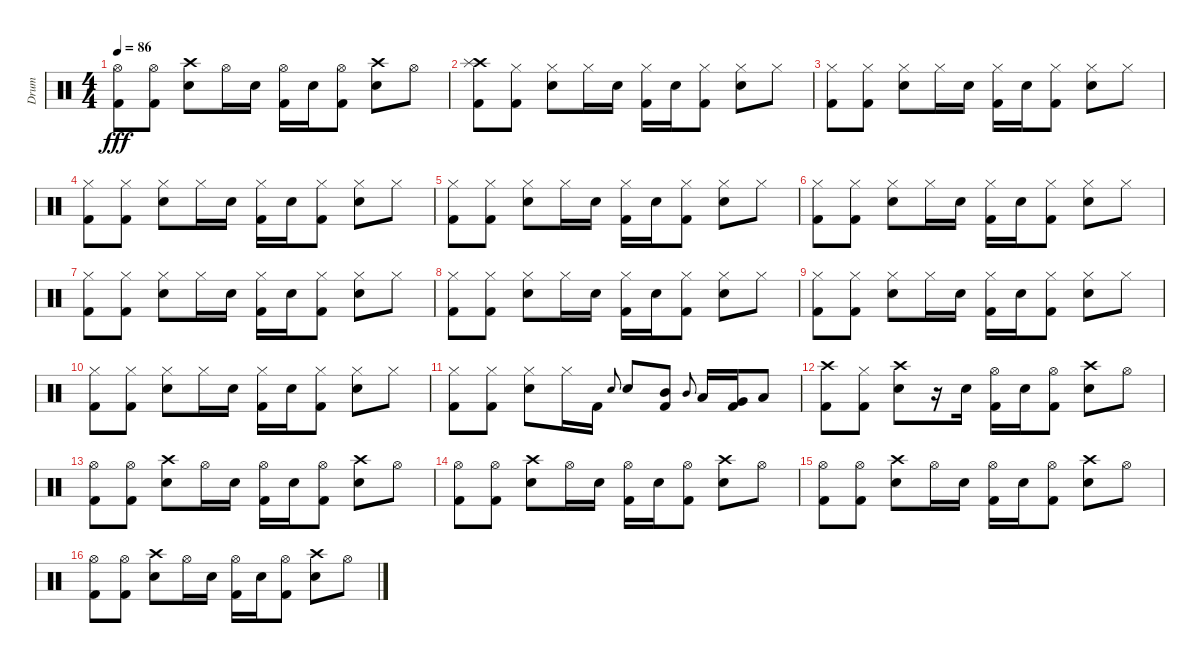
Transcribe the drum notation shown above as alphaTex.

\track ("Drum" "Drum") {instrument percussion}
\staff {score}
\articulation defaults
\ts (4 4)
\tempo 86
\clef neutral
\ks c
("Hi-Hat (open)" "Kick (hit) 2").8{dy fff} ("Hi-Hat (open)" "Kick (hit) 2").8 ("Crash high (hit)" "Electric Snare (hit)").8 "Hi-Hat (open)".16 "Electric Snare (hit)".16 ("Hi-Hat (open)" "Kick (hit) 2").16 "Electric Snare (hit)".16 ("Hi-Hat (open)" "Kick (hit) 2").8 ("Crash high (hit)" "Electric Snare (hit)").8 "Hi-Hat (open)".8 |
("Crash high (hit)" "Splash (hit)" "Kick (hit) 2").8 ("Hi-Hat (closed)" "Kick (hit) 2").8 ("Hi-Hat (closed)" "Electric Snare (hit)").8 "Hi-Hat (closed)".16 "Electric Snare (hit)".16 ("Hi-Hat (closed)" "Kick (hit) 2").16 "Electric Snare (hit)".16 ("Hi-Hat (closed)" "Kick (hit) 2").8 ("Hi-Hat (closed)" "Electric Snare (hit)").8 "Hi-Hat (closed)".8 |
("Hi-Hat (closed)" "Kick (hit) 2").8 ("Hi-Hat (closed)" "Kick (hit) 2").8 ("Hi-Hat (closed)" "Electric Snare (hit)").8 "Hi-Hat (closed)".16 "Electric Snare (hit)".16 ("Hi-Hat (closed)" "Kick (hit) 2").16 "Electric Snare (hit)".16 ("Hi-Hat (closed)" "Kick (hit) 2").8 ("Hi-Hat (closed)" "Electric Snare (hit)").8 "Hi-Hat (closed)".8 |
("Hi-Hat (closed)" "Kick (hit) 2").8 ("Hi-Hat (closed)" "Kick (hit) 2").8 ("Hi-Hat (closed)" "Electric Snare (hit)").8 "Hi-Hat (closed)".16 "Electric Snare (hit)".16 ("Hi-Hat (closed)" "Kick (hit) 2").16 "Electric Snare (hit)".16 ("Hi-Hat (closed)" "Kick (hit) 2").8 ("Hi-Hat (closed)" "Electric Snare (hit)").8 "Hi-Hat (closed)".8 |
("Hi-Hat (closed)" "Kick (hit) 2").8 ("Hi-Hat (closed)" "Kick (hit) 2").8 ("Hi-Hat (closed)" "Electric Snare (hit)").8 "Hi-Hat (closed)".16 "Electric Snare (hit)".16 ("Hi-Hat (closed)" "Kick (hit) 2").16 "Electric Snare (hit)".16 ("Hi-Hat (closed)" "Kick (hit) 2").8 ("Hi-Hat (closed)" "Electric Snare (hit)").8 "Hi-Hat (closed)".8 |
("Hi-Hat (closed)" "Kick (hit) 2").8 ("Hi-Hat (closed)" "Kick (hit) 2").8 ("Hi-Hat (closed)" "Electric Snare (hit)").8 "Hi-Hat (closed)".16 "Electric Snare (hit)".16 ("Hi-Hat (closed)" "Kick (hit) 2").16 "Electric Snare (hit)".16 ("Hi-Hat (closed)" "Kick (hit) 2").8 ("Hi-Hat (closed)" "Electric Snare (hit)").8 "Hi-Hat (closed)".8 |
("Hi-Hat (closed)" "Kick (hit) 2").8 ("Hi-Hat (closed)" "Kick (hit) 2").8 ("Hi-Hat (closed)" "Electric Snare (hit)").8 "Hi-Hat (closed)".16 "Electric Snare (hit)".16 ("Hi-Hat (closed)" "Kick (hit) 2").16 "Electric Snare (hit)".16 ("Hi-Hat (closed)" "Kick (hit) 2").8 ("Hi-Hat (closed)" "Electric Snare (hit)").8 "Hi-Hat (closed)".8 |
("Hi-Hat (closed)" "Kick (hit) 2").8 ("Hi-Hat (closed)" "Kick (hit) 2").8 ("Hi-Hat (closed)" "Electric Snare (hit)").8 "Hi-Hat (closed)".16 "Electric Snare (hit)".16 ("Hi-Hat (closed)" "Kick (hit) 2").16 "Electric Snare (hit)".16 ("Hi-Hat (closed)" "Kick (hit) 2").8 ("Hi-Hat (closed)" "Electric Snare (hit)").8 "Hi-Hat (closed)".8 |
("Hi-Hat (closed)" "Kick (hit) 2").8 ("Hi-Hat (closed)" "Kick (hit) 2").8 ("Hi-Hat (closed)" "Electric Snare (hit)").8 "Hi-Hat (closed)".16 "Electric Snare (hit)".16 ("Hi-Hat (closed)" "Kick (hit) 2").16 "Electric Snare (hit)".16 ("Hi-Hat (closed)" "Kick (hit) 2").8 ("Hi-Hat (closed)" "Electric Snare (hit)").8 "Hi-Hat (closed)".8 |
("Hi-Hat (closed)" "Kick (hit) 2").8 ("Hi-Hat (closed)" "Kick (hit) 2").8 ("Hi-Hat (closed)" "Electric Snare (hit)").8 "Hi-Hat (closed)".16 "Electric Snare (hit)".16 ("Hi-Hat (closed)" "Kick (hit) 2").16 "Electric Snare (hit)".16 ("Hi-Hat (closed)" "Kick (hit) 2").8 ("Hi-Hat (closed)" "Electric Snare (hit)").8 "Hi-Hat (closed)".8 |
("Hi-Hat (closed)" "Kick (hit) 2").8 ("Hi-Hat (closed)" "Kick (hit) 2").8 ("Hi-Hat (closed)" "Electric Snare (hit)").8 "Hi-Hat (closed)".16 "Kick (hit) 2".16 "Electric Snare (hit)".8{gr onbeat} "Electric Snare (hit)".8 ("Mid Tom (hit)" "Kick (hit) 2").8 "Mid Tom (hit)"{h}.8{gr onbeat} "Low Tom (hit)".16 ("Very Low Tom (hit)" "Kick (hit) 2").16 "Low Floor Tom (hit)".8 |
("Crash high (hit)" "Kick (hit) 2").8 ("Hi-Hat (closed)" "Kick (hit) 2").8 ("Crash high (hit)" "Electric Snare (hit)").8 r.16 "Electric Snare (hit)".16 ("Hi-Hat (open)" "Kick (hit) 2").16 "Electric Snare (hit)".16 ("Hi-Hat (open)" "Kick (hit) 2").8 ("Crash high (hit)" "Electric Snare (hit)").8 "Hi-Hat (open)".8 |
("Hi-Hat (open)" "Kick (hit) 2").8 ("Hi-Hat (open)" "Kick (hit) 2").8 ("Crash high (hit)" "Electric Snare (hit)").8 "Hi-Hat (open)".16 "Electric Snare (hit)".16 ("Hi-Hat (open)" "Kick (hit) 2").16 "Electric Snare (hit)".16 ("Hi-Hat (open)" "Kick (hit) 2").8 ("Crash high (hit)" "Electric Snare (hit)").8 "Hi-Hat (open)".8 |
("Hi-Hat (open)" "Kick (hit) 2").8 ("Hi-Hat (open)" "Kick (hit) 2").8 ("Crash high (hit)" "Electric Snare (hit)").8 "Hi-Hat (open)".16 "Electric Snare (hit)".16 ("Hi-Hat (open)" "Kick (hit) 2").16 "Electric Snare (hit)".16 ("Hi-Hat (open)" "Kick (hit) 2").8 ("Crash high (hit)" "Electric Snare (hit)").8 "Hi-Hat (open)".8 |
("Hi-Hat (open)" "Kick (hit) 2").8 ("Hi-Hat (open)" "Kick (hit) 2").8 ("Crash high (hit)" "Electric Snare (hit)").8 "Hi-Hat (open)".16 "Electric Snare (hit)".16 ("Hi-Hat (open)" "Kick (hit) 2").16 "Electric Snare (hit)".16 ("Hi-Hat (open)" "Kick (hit) 2").8 ("Crash high (hit)" "Electric Snare (hit)").8 "Hi-Hat (open)".8 |
("Hi-Hat (open)" "Kick (hit) 2").8 ("Hi-Hat (open)" "Kick (hit) 2").8 ("Crash high (hit)" "Electric Snare (hit)").8 "Hi-Hat (open)".16 "Electric Snare (hit)".16 ("Hi-Hat (open)" "Kick (hit) 2").16 "Electric Snare (hit)".16 ("Hi-Hat (open)" "Kick (hit) 2").8 ("Crash high (hit)" "Electric Snare (hit)").8 "Hi-Hat (open)".8
